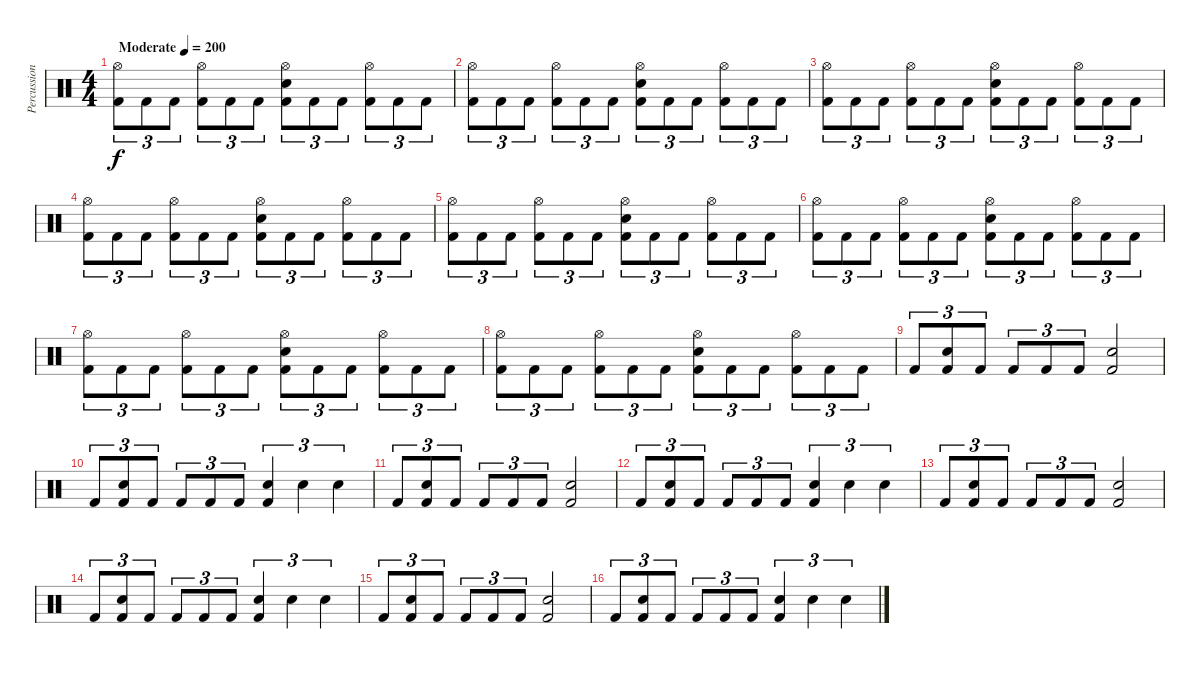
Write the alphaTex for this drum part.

\track ("Percussion" "Percussion") {instrument percussion}
\staff {score}
\articulation defaults
\ts (4 4)
\tempo (200 "Moderate")
\clef neutral
\ks c
("Hi-Hat (open)" "Kick (hit) 2").8{tu (3 2) dy f} "Kick (hit) 2".8{tu (3 2)} "Kick (hit) 2".8{tu (3 2)} ("Hi-Hat (open)" "Kick (hit) 2").8{tu (3 2)} "Kick (hit) 2".8{tu (3 2)} "Kick (hit) 2".8{tu (3 2)} ("Hi-Hat (open)" "Snare (hit) 2" "Kick (hit) 2").8{tu (3 2)} "Kick (hit) 2".8{tu (3 2)} "Kick (hit) 2".8{tu (3 2)} ("Hi-Hat (open)" "Kick (hit) 2").8{tu (3 2)} "Kick (hit) 2".8{tu (3 2)} "Kick (hit) 2".8{tu (3 2)} |
("Hi-Hat (open)" "Kick (hit) 2").8{tu (3 2)} "Kick (hit) 2".8{tu (3 2)} "Kick (hit) 2".8{tu (3 2)} ("Hi-Hat (open)" "Kick (hit) 2").8{tu (3 2)} "Kick (hit) 2".8{tu (3 2)} "Kick (hit) 2".8{tu (3 2)} ("Hi-Hat (open)" "Snare (hit) 2" "Kick (hit) 2").8{tu (3 2)} "Kick (hit) 2".8{tu (3 2)} "Kick (hit) 2".8{tu (3 2)} ("Hi-Hat (open)" "Kick (hit) 2").8{tu (3 2)} "Kick (hit) 2".8{tu (3 2)} "Kick (hit) 2".8{tu (3 2)} |
("Hi-Hat (open)" "Kick (hit) 2").8{tu (3 2)} "Kick (hit) 2".8{tu (3 2)} "Kick (hit) 2".8{tu (3 2)} ("Hi-Hat (open)" "Kick (hit) 2").8{tu (3 2)} "Kick (hit) 2".8{tu (3 2)} "Kick (hit) 2".8{tu (3 2)} ("Hi-Hat (open)" "Snare (hit) 2" "Kick (hit) 2").8{tu (3 2)} "Kick (hit) 2".8{tu (3 2)} "Kick (hit) 2".8{tu (3 2)} ("Hi-Hat (open)" "Kick (hit) 2").8{tu (3 2)} "Kick (hit) 2".8{tu (3 2)} "Kick (hit) 2".8{tu (3 2)} |
("Hi-Hat (open)" "Kick (hit) 2").8{tu (3 2)} "Kick (hit) 2".8{tu (3 2)} "Kick (hit) 2".8{tu (3 2)} ("Hi-Hat (open)" "Kick (hit) 2").8{tu (3 2)} "Kick (hit) 2".8{tu (3 2)} "Kick (hit) 2".8{tu (3 2)} ("Hi-Hat (open)" "Snare (hit) 2" "Kick (hit) 2").8{tu (3 2)} "Kick (hit) 2".8{tu (3 2)} "Kick (hit) 2".8{tu (3 2)} ("Hi-Hat (open)" "Kick (hit) 2").8{tu (3 2)} "Kick (hit) 2".8{tu (3 2)} "Kick (hit) 2".8{tu (3 2)} |
("Hi-Hat (open)" "Kick (hit) 2").8{tu (3 2)} "Kick (hit) 2".8{tu (3 2)} "Kick (hit) 2".8{tu (3 2)} ("Hi-Hat (open)" "Kick (hit) 2").8{tu (3 2)} "Kick (hit) 2".8{tu (3 2)} "Kick (hit) 2".8{tu (3 2)} ("Hi-Hat (open)" "Snare (hit) 2" "Kick (hit) 2").8{tu (3 2)} "Kick (hit) 2".8{tu (3 2)} "Kick (hit) 2".8{tu (3 2)} ("Hi-Hat (open)" "Kick (hit) 2").8{tu (3 2)} "Kick (hit) 2".8{tu (3 2)} "Kick (hit) 2".8{tu (3 2)} |
("Hi-Hat (open)" "Kick (hit) 2").8{tu (3 2)} "Kick (hit) 2".8{tu (3 2)} "Kick (hit) 2".8{tu (3 2)} ("Hi-Hat (open)" "Kick (hit) 2").8{tu (3 2)} "Kick (hit) 2".8{tu (3 2)} "Kick (hit) 2".8{tu (3 2)} ("Hi-Hat (open)" "Snare (hit) 2" "Kick (hit) 2").8{tu (3 2)} "Kick (hit) 2".8{tu (3 2)} "Kick (hit) 2".8{tu (3 2)} ("Hi-Hat (open)" "Kick (hit) 2").8{tu (3 2)} "Kick (hit) 2".8{tu (3 2)} "Kick (hit) 2".8{tu (3 2)} |
("Hi-Hat (open)" "Kick (hit) 2").8{tu (3 2)} "Kick (hit) 2".8{tu (3 2)} "Kick (hit) 2".8{tu (3 2)} ("Hi-Hat (open)" "Kick (hit) 2").8{tu (3 2)} "Kick (hit) 2".8{tu (3 2)} "Kick (hit) 2".8{tu (3 2)} ("Hi-Hat (open)" "Snare (hit) 2" "Kick (hit) 2").8{tu (3 2)} "Kick (hit) 2".8{tu (3 2)} "Kick (hit) 2".8{tu (3 2)} ("Hi-Hat (open)" "Kick (hit) 2").8{tu (3 2)} "Kick (hit) 2".8{tu (3 2)} "Kick (hit) 2".8{tu (3 2)} |
("Hi-Hat (open)" "Kick (hit) 2").8{tu (3 2)} "Kick (hit) 2".8{tu (3 2)} "Kick (hit) 2".8{tu (3 2)} ("Hi-Hat (open)" "Kick (hit) 2").8{tu (3 2)} "Kick (hit) 2".8{tu (3 2)} "Kick (hit) 2".8{tu (3 2)} ("Hi-Hat (open)" "Snare (hit) 2" "Kick (hit) 2").8{tu (3 2)} "Kick (hit) 2".8{tu (3 2)} "Kick (hit) 2".8{tu (3 2)} ("Hi-Hat (open)" "Kick (hit) 2").8{tu (3 2)} "Kick (hit) 2".8{tu (3 2)} "Kick (hit) 2".8{tu (3 2)} |
"Kick (hit) 2".8{tu (3 2)} ("Snare (hit) 2" "Kick (hit) 2").8{tu (3 2)} "Kick (hit) 2".8{tu (3 2)} "Kick (hit) 2".8{tu (3 2)} "Kick (hit) 2".8{tu (3 2)} "Kick (hit) 2".8{tu (3 2)} ("Snare (hit) 2" "Kick (hit) 2").2 |
"Kick (hit) 2".8{tu (3 2)} ("Snare (hit) 2" "Kick (hit) 2").8{tu (3 2)} "Kick (hit) 2".8{tu (3 2)} "Kick (hit) 2".8{tu (3 2)} "Kick (hit) 2".8{tu (3 2)} "Kick (hit) 2".8{tu (3 2)} ("Snare (hit) 2" "Kick (hit) 2").4{tu (3 2)} "Snare (hit) 2".4{tu (3 2)} "Snare (hit) 2".4{tu (3 2)} |
"Kick (hit) 2".8{tu (3 2)} ("Snare (hit) 2" "Kick (hit) 2").8{tu (3 2)} "Kick (hit) 2".8{tu (3 2)} "Kick (hit) 2".8{tu (3 2)} "Kick (hit) 2".8{tu (3 2)} "Kick (hit) 2".8{tu (3 2)} ("Snare (hit) 2" "Kick (hit) 2").2 |
"Kick (hit) 2".8{tu (3 2)} ("Snare (hit) 2" "Kick (hit) 2").8{tu (3 2)} "Kick (hit) 2".8{tu (3 2)} "Kick (hit) 2".8{tu (3 2)} "Kick (hit) 2".8{tu (3 2)} "Kick (hit) 2".8{tu (3 2)} ("Snare (hit) 2" "Kick (hit) 2").4{tu (3 2)} "Snare (hit) 2".4{tu (3 2)} "Snare (hit) 2".4{tu (3 2)} |
"Kick (hit) 2".8{tu (3 2)} ("Snare (hit) 2" "Kick (hit) 2").8{tu (3 2)} "Kick (hit) 2".8{tu (3 2)} "Kick (hit) 2".8{tu (3 2)} "Kick (hit) 2".8{tu (3 2)} "Kick (hit) 2".8{tu (3 2)} ("Snare (hit) 2" "Kick (hit) 2").2 |
"Kick (hit) 2".8{tu (3 2)} ("Snare (hit) 2" "Kick (hit) 2").8{tu (3 2)} "Kick (hit) 2".8{tu (3 2)} "Kick (hit) 2".8{tu (3 2)} "Kick (hit) 2".8{tu (3 2)} "Kick (hit) 2".8{tu (3 2)} ("Snare (hit) 2" "Kick (hit) 2").4{tu (3 2)} "Snare (hit) 2".4{tu (3 2)} "Snare (hit) 2".4{tu (3 2)} |
"Kick (hit) 2".8{tu (3 2)} ("Snare (hit) 2" "Kick (hit) 2").8{tu (3 2)} "Kick (hit) 2".8{tu (3 2)} "Kick (hit) 2".8{tu (3 2)} "Kick (hit) 2".8{tu (3 2)} "Kick (hit) 2".8{tu (3 2)} ("Snare (hit) 2" "Kick (hit) 2").2 |
"Kick (hit) 2".8{tu (3 2)} ("Snare (hit) 2" "Kick (hit) 2").8{tu (3 2)} "Kick (hit) 2".8{tu (3 2)} "Kick (hit) 2".8{tu (3 2)} "Kick (hit) 2".8{tu (3 2)} "Kick (hit) 2".8{tu (3 2)} ("Snare (hit) 2" "Kick (hit) 2").4{tu (3 2)} "Snare (hit) 2".4{tu (3 2)} "Snare (hit) 2".4{tu (3 2)}
